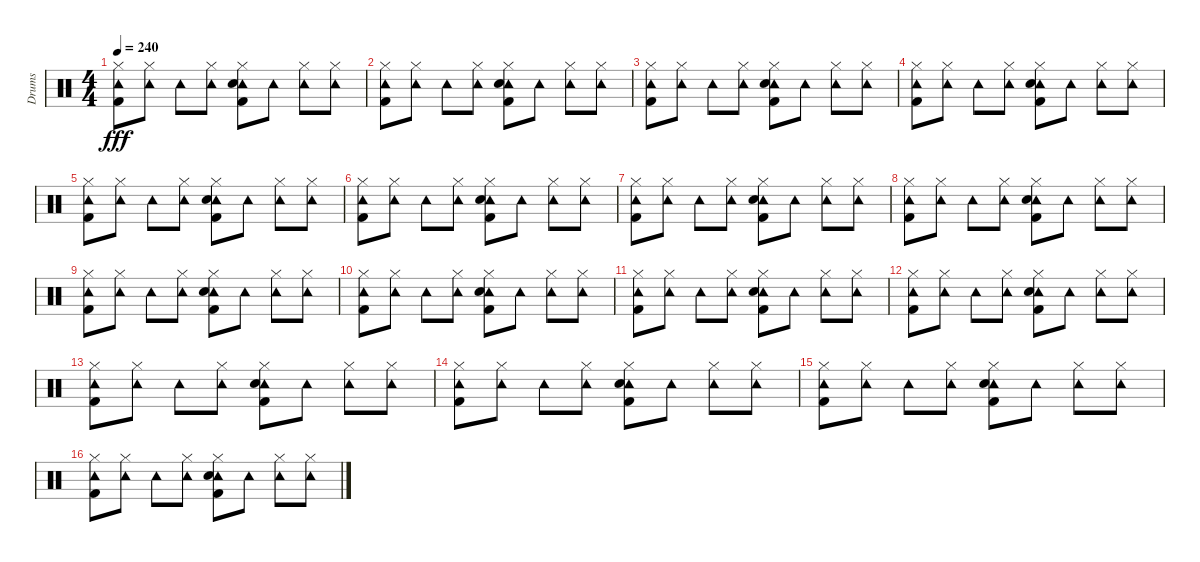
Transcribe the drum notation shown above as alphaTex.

\track ("Drums" "Drums") {instrument percussion}
\staff {score}
\articulation defaults
\ts (4 4)
\tempo 240
\clef neutral
\ks c
("Tambourine (hit)" "Hi-Hat (closed)" "Kick (hit) 2").8{dy fff} ("Tambourine (hit)" "Hi-Hat (closed)").8 "Tambourine (hit)".8 ("Tambourine (hit)" "Hi-Hat (closed)").8 ("Tambourine (hit)" "Hi-Hat (closed)" "Hand Clap (hit)" "Kick (hit) 2").8 "Tambourine (hit)".8 ("Tambourine (hit)" "Hi-Hat (closed)").8 ("Tambourine (hit)" "Hi-Hat (closed)").8 |
("Tambourine (hit)" "Hi-Hat (closed)" "Kick (hit) 2").8 ("Tambourine (hit)" "Hi-Hat (closed)").8 "Tambourine (hit)".8 ("Tambourine (hit)" "Hi-Hat (closed)").8 ("Tambourine (hit)" "Hi-Hat (closed)" "Hand Clap (hit)" "Kick (hit) 2").8 "Tambourine (hit)".8 ("Tambourine (hit)" "Hi-Hat (closed)").8 ("Tambourine (hit)" "Hi-Hat (closed)").8 |
("Tambourine (hit)" "Hi-Hat (closed)" "Kick (hit) 2").8 ("Tambourine (hit)" "Hi-Hat (closed)").8 "Tambourine (hit)".8 ("Tambourine (hit)" "Hi-Hat (closed)").8 ("Tambourine (hit)" "Hi-Hat (closed)" "Hand Clap (hit)" "Kick (hit) 2").8 "Tambourine (hit)".8 ("Tambourine (hit)" "Hi-Hat (closed)").8 ("Tambourine (hit)" "Hi-Hat (closed)").8 |
("Tambourine (hit)" "Hi-Hat (closed)" "Kick (hit) 2").8 ("Tambourine (hit)" "Hi-Hat (closed)").8 "Tambourine (hit)".8 ("Tambourine (hit)" "Hi-Hat (closed)").8 ("Tambourine (hit)" "Hi-Hat (closed)" "Hand Clap (hit)" "Kick (hit) 2").8 "Tambourine (hit)".8 ("Tambourine (hit)" "Hi-Hat (closed)").8 ("Tambourine (hit)" "Hi-Hat (closed)").8 |
("Tambourine (hit)" "Hi-Hat (closed)" "Kick (hit) 2").8 ("Tambourine (hit)" "Hi-Hat (closed)").8 "Tambourine (hit)".8 ("Tambourine (hit)" "Hi-Hat (closed)").8 ("Tambourine (hit)" "Hi-Hat (closed)" "Hand Clap (hit)" "Kick (hit) 2").8 "Tambourine (hit)".8 ("Tambourine (hit)" "Hi-Hat (closed)").8 ("Tambourine (hit)" "Hi-Hat (closed)").8 |
("Tambourine (hit)" "Hi-Hat (closed)" "Kick (hit) 2").8 ("Tambourine (hit)" "Hi-Hat (closed)").8 "Tambourine (hit)".8 ("Tambourine (hit)" "Hi-Hat (closed)").8 ("Tambourine (hit)" "Hi-Hat (closed)" "Hand Clap (hit)" "Kick (hit) 2").8 "Tambourine (hit)".8 ("Tambourine (hit)" "Hi-Hat (closed)").8 ("Tambourine (hit)" "Hi-Hat (closed)").8 |
("Tambourine (hit)" "Hi-Hat (closed)" "Kick (hit) 2").8 ("Tambourine (hit)" "Hi-Hat (closed)").8 "Tambourine (hit)".8 ("Tambourine (hit)" "Hi-Hat (closed)").8 ("Tambourine (hit)" "Hi-Hat (closed)" "Hand Clap (hit)" "Kick (hit) 2").8 "Tambourine (hit)".8 ("Tambourine (hit)" "Hi-Hat (closed)").8 ("Tambourine (hit)" "Hi-Hat (closed)").8 |
("Tambourine (hit)" "Hi-Hat (closed)" "Kick (hit) 2").8 ("Tambourine (hit)" "Hi-Hat (closed)").8 "Tambourine (hit)".8 ("Tambourine (hit)" "Hi-Hat (closed)").8 ("Tambourine (hit)" "Hi-Hat (closed)" "Hand Clap (hit)" "Kick (hit) 2").8 "Tambourine (hit)".8 ("Tambourine (hit)" "Hi-Hat (closed)").8 ("Tambourine (hit)" "Hi-Hat (closed)").8 |
("Tambourine (hit)" "Hi-Hat (closed)" "Kick (hit) 2").8 ("Tambourine (hit)" "Hi-Hat (closed)").8 "Tambourine (hit)".8 ("Tambourine (hit)" "Hi-Hat (closed)").8 ("Tambourine (hit)" "Hi-Hat (closed)" "Hand Clap (hit)" "Kick (hit) 2").8 "Tambourine (hit)".8 ("Tambourine (hit)" "Hi-Hat (closed)").8 ("Tambourine (hit)" "Hi-Hat (closed)").8 |
("Tambourine (hit)" "Hi-Hat (closed)" "Kick (hit) 2").8 ("Tambourine (hit)" "Hi-Hat (closed)").8 "Tambourine (hit)".8 ("Tambourine (hit)" "Hi-Hat (closed)").8 ("Tambourine (hit)" "Hi-Hat (closed)" "Hand Clap (hit)" "Kick (hit) 2").8 "Tambourine (hit)".8 ("Tambourine (hit)" "Hi-Hat (closed)").8 ("Tambourine (hit)" "Hi-Hat (closed)").8 |
("Tambourine (hit)" "Hi-Hat (closed)" "Kick (hit) 2").8 ("Tambourine (hit)" "Hi-Hat (closed)").8 "Tambourine (hit)".8 ("Tambourine (hit)" "Hi-Hat (closed)").8 ("Tambourine (hit)" "Hi-Hat (closed)" "Hand Clap (hit)" "Kick (hit) 2").8 "Tambourine (hit)".8 ("Tambourine (hit)" "Hi-Hat (closed)").8 ("Tambourine (hit)" "Hi-Hat (closed)").8 |
("Tambourine (hit)" "Hi-Hat (closed)" "Kick (hit) 2").8 ("Tambourine (hit)" "Hi-Hat (closed)").8 "Tambourine (hit)".8 ("Tambourine (hit)" "Hi-Hat (closed)").8 ("Tambourine (hit)" "Hi-Hat (closed)" "Hand Clap (hit)" "Kick (hit) 2").8 "Tambourine (hit)".8 ("Tambourine (hit)" "Hi-Hat (closed)").8 ("Tambourine (hit)" "Hi-Hat (closed)").8 |
("Tambourine (hit)" "Hi-Hat (closed)" "Kick (hit) 2").8 ("Tambourine (hit)" "Hi-Hat (closed)").8 "Tambourine (hit)".8 ("Tambourine (hit)" "Hi-Hat (closed)").8 ("Tambourine (hit)" "Hi-Hat (closed)" "Hand Clap (hit)" "Kick (hit) 2").8 "Tambourine (hit)".8 ("Tambourine (hit)" "Hi-Hat (closed)").8 ("Tambourine (hit)" "Hi-Hat (closed)").8 |
("Tambourine (hit)" "Hi-Hat (closed)" "Kick (hit) 2").8 ("Tambourine (hit)" "Hi-Hat (closed)").8 "Tambourine (hit)".8 ("Tambourine (hit)" "Hi-Hat (closed)").8 ("Tambourine (hit)" "Hi-Hat (closed)" "Hand Clap (hit)" "Kick (hit) 2").8 "Tambourine (hit)".8 ("Tambourine (hit)" "Hi-Hat (closed)").8 ("Tambourine (hit)" "Hi-Hat (closed)").8 |
("Tambourine (hit)" "Hi-Hat (closed)" "Kick (hit) 2").8 ("Tambourine (hit)" "Hi-Hat (closed)").8 "Tambourine (hit)".8 ("Tambourine (hit)" "Hi-Hat (closed)").8 ("Tambourine (hit)" "Hi-Hat (closed)" "Hand Clap (hit)" "Kick (hit) 2").8 "Tambourine (hit)".8 ("Tambourine (hit)" "Hi-Hat (closed)").8 ("Tambourine (hit)" "Hi-Hat (closed)").8 |
("Tambourine (hit)" "Hi-Hat (closed)" "Kick (hit) 2").8 ("Tambourine (hit)" "Hi-Hat (closed)").8 "Tambourine (hit)".8 ("Tambourine (hit)" "Hi-Hat (closed)").8 ("Tambourine (hit)" "Hi-Hat (closed)" "Hand Clap (hit)" "Kick (hit) 2").8 "Tambourine (hit)".8 ("Tambourine (hit)" "Hi-Hat (closed)").8 ("Tambourine (hit)" "Hi-Hat (closed)").8
